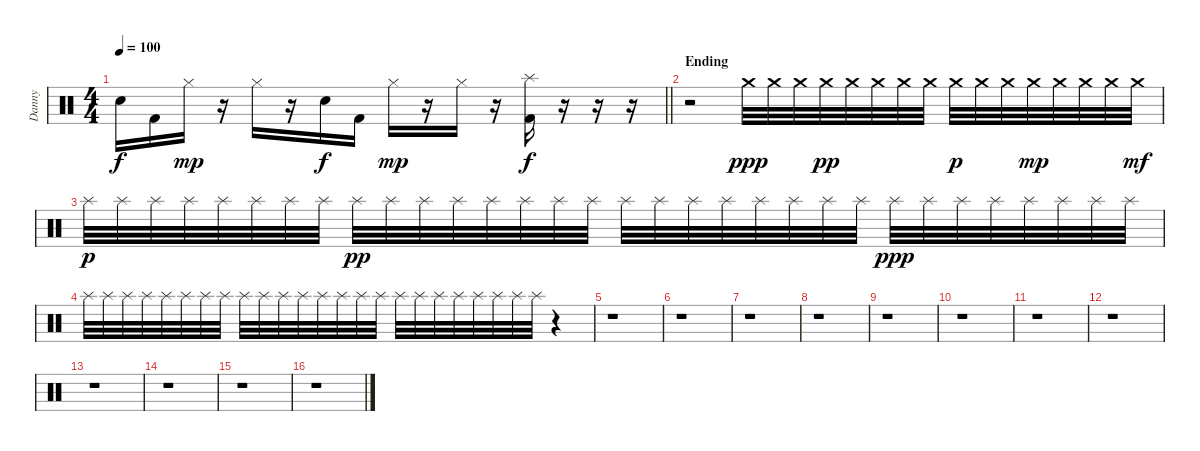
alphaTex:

\track ("Danny" "Danny") {instrument percussion}
\staff {score}
\articulation defaults
\ts (4 4)
\tempo 100
\clef neutral
\barLineRight lightlight
\ks c "Electric Snare (hit)".16{dy f} "Kick (hit) 2".16 "Hi-Hat (closed)".16{dy mp}
r.16 "Hi-Hat (closed)".16 r.16 "Electric Snare (hit)".16{dy f} "Kick (hit) 2".16 "Hi-Hat (closed)".16{dy mp} r.16 "Hi-Hat (closed)".16 r.16 ("Splash (hit)" "Kick (hit) 2").16{dy f} r.16 r.16 r.16 |
\section ("" "Ending")
r.2 "Crash medium (hit)".32{dy ppp} "Crash medium (hit)".32 "Crash medium (hit)".32 "Crash medium (hit)".32{dy pp} "Crash medium (hit)".32 "Crash medium (hit)".32 "Crash medium (hit)".32 "Crash medium (hit)".32 "Crash medium (hit)".32{dy p} "Crash medium (hit)".32 "Crash medium (hit)".32 "Crash medium (hit)".32{dy mp} "Crash medium (hit)".32 "Crash medium (hit)".32 "Crash medium (hit)".32 "Crash medium (hit)".32{dy mf} |
"Splash (hit)".32{dy p} "Splash (hit)".32 "Splash (hit)".32 "Splash (hit)".32 "Splash (hit)".32 "Splash (hit)".32 "Splash (hit)".32 "Splash (hit)".32 "Splash (hit)".32{dy pp} "Splash (hit)".32 "Splash (hit)".32 "Splash (hit)".32 "Splash (hit)".32 "Splash (hit)".32 "Splash (hit)".32 "Splash (hit)".32 "Splash (hit)".32 "Splash (hit)".32 "Splash (hit)".32 "Splash (hit)".32 "Splash (hit)".32 "Splash (hit)".32 "Splash (hit)".32 "Splash (hit)".32 "Splash (hit)".32{dy ppp} "Splash (hit)".32 "Splash (hit)".32 "Splash (hit)".32 "Splash (hit)".32 "Splash (hit)".32 "Splash (hit)".32 "Splash (hit)".32 |
"Splash (hit)".32 "Splash (hit)".32 "Splash (hit)".32 "Splash (hit)".32 "Splash (hit)".32 "Splash (hit)".32 "Splash (hit)".32 "Splash (hit)".32 "Splash (hit)".32 "Splash (hit)".32 "Splash (hit)".32 "Splash (hit)".32 "Splash (hit)".32 "Splash (hit)".32 "Splash (hit)".32 "Splash (hit)".32 "Splash (hit)".32 "Splash (hit)".32 "Splash (hit)".32 "Splash (hit)".32 "Splash (hit)".32 "Splash (hit)".32 "Splash (hit)".32 "Splash (hit)".32 r.4 |
r.1 |
r.1 |
r.1 |
r.1 |
r.1 |
r.1 |
r.1 |
r.1 |
r.1 |
r.1 |
r.1 |
r.1
